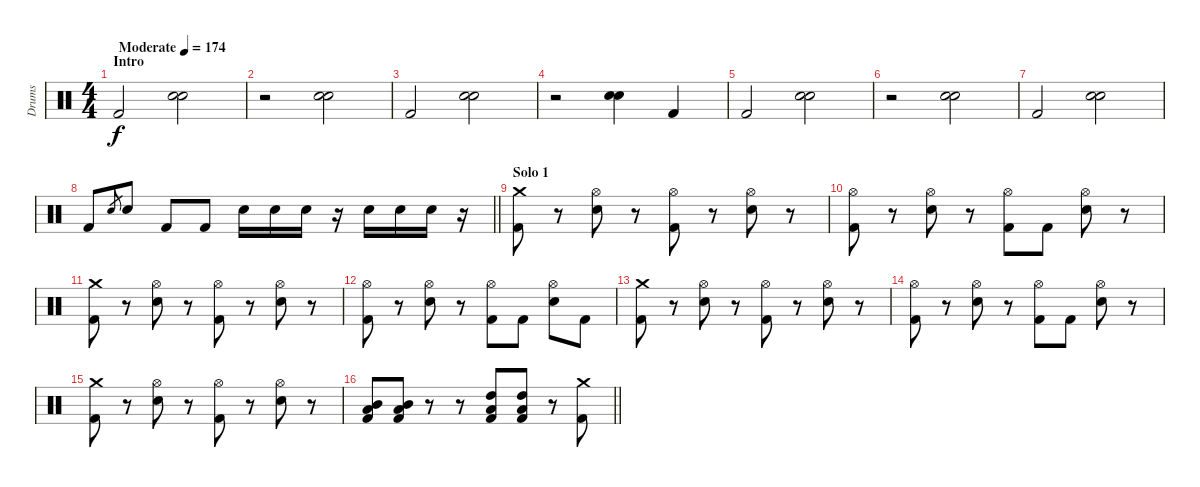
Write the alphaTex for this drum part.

\track ("Drums" "Drums") {instrument percussion}
\staff {score}
\articulation defaults
\ts (4 4)
\section ("" "Intro")
\tempo (174 "Moderate")
\clef neutral
\ks c "Kick (hit) 2".2{dy f}
("Electric Snare (hit)" "Electric Snare (hit)").2{bd 60} |
r.2 ("Electric Snare (hit)" "Electric Snare (hit)").2{bd 60} |
"Kick (hit) 2".2 ("Electric Snare (hit)" "Electric Snare (hit)").2{bd 60} |
r.2 ("Electric Snare (hit)" "Electric Snare (hit)").4{bd 60} "Kick (hit) 2".4 |
"Kick (hit) 2".2 ("Electric Snare (hit)" "Electric Snare (hit)").2{bd 60} |
r.2 ("Electric Snare (hit)" "Electric Snare (hit)").2{bd 60} |
"Kick (hit) 2".2 ("Electric Snare (hit)" "Electric Snare (hit)").2{bd 60} |
\barLineRight lightlight "Kick (hit) 2".8 "Electric Snare (hit)".8{gr} "Electric Snare (hit)".8 "Kick (hit) 2".8 "Kick (hit) 2".8 "Electric Snare (hit)".16 "Electric Snare (hit)".16 "Electric Snare (hit)".16
r.16 "Electric Snare (hit)".16 "Electric Snare (hit)".16 "Electric Snare (hit)".16 r.16 |
\section ("" "Solo 1")
("Crash medium (hit)" "Kick (hit) 2").8 r.8 ("Hi-Hat (open)" "Electric Snare (hit)").8 r.8 ("Hi-Hat (open)" "Kick (hit) 2").8 r.8 ("Hi-Hat (open)" "Electric Snare (hit)").8 r.8 |
("Hi-Hat (open)" "Kick (hit) 2").8 r.8 ("Hi-Hat (open)" "Electric Snare (hit)").8 r.8 ("Hi-Hat (open)" "Kick (hit) 2").8 "Kick (hit) 2".8 ("Hi-Hat (open)" "Electric Snare (hit)").8 r.8 |
("Crash medium (hit)" "Kick (hit) 2").8 r.8 ("Hi-Hat (open)" "Electric Snare (hit)").8 r.8 ("Hi-Hat (open)" "Kick (hit) 2").8 r.8 ("Hi-Hat (open)" "Electric Snare (hit)").8 r.8 |
("Hi-Hat (open)" "Kick (hit) 2").8 r.8 ("Hi-Hat (open)" "Electric Snare (hit)").8 r.8 ("Hi-Hat (open)" "Kick (hit) 2").8 "Kick (hit) 2".8 ("Hi-Hat (open)" "Electric Snare (hit)").8 "Kick (hit) 2".8 |
("Crash medium (hit)" "Kick (hit) 2").8 r.8 ("Hi-Hat (open)" "Electric Snare (hit)").8 r.8 ("Hi-Hat (open)" "Kick (hit) 2").8 r.8 ("Hi-Hat (open)" "Electric Snare (hit)").8 r.8 |
("Hi-Hat (open)" "Kick (hit) 2").8 r.8 ("Hi-Hat (open)" "Electric Snare (hit)").8 r.8 ("Hi-Hat (open)" "Kick (hit) 2").8 "Kick (hit) 2".8 ("Hi-Hat (open)" "Electric Snare (hit)").8 r.8 |
("Crash medium (hit)" "Kick (hit) 2").8 r.8 ("Hi-Hat (open)" "Electric Snare (hit)").8 r.8 ("Hi-Hat (open)" "Kick (hit) 2").8 r.8 ("Hi-Hat (open)" "Electric Snare (hit)").8 r.8 |
\barLineRight lightlight
("Low Tom (hit)" "Mid Tom (hit)" "Kick (hit) 2").8 ("Low Tom (hit)" "Mid Tom (hit)" "Kick (hit) 2").8 r.8 r.8 ("Low Tom (hit)" "High Tom (hit)" "Kick (hit) 2").8 ("Low Tom (hit)" "High Tom (hit)" "Kick (hit) 2").8 r.8 ("Crash medium (hit)" "Kick (hit) 2").8
